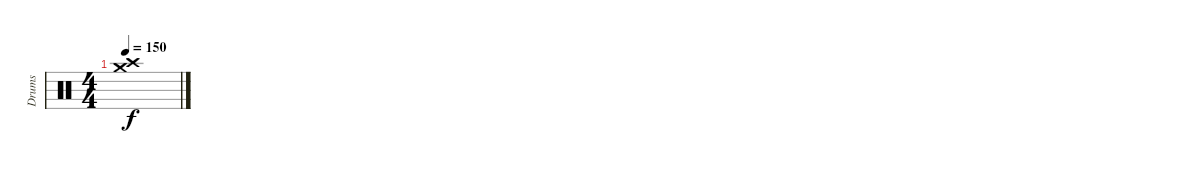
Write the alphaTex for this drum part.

\track ("Drums" "Drums") {instrument percussion}
\staff {score}
\articulation defaults
\ts (4 4)
\tempo 150
\clef neutral
\ks c
("Crash high (hit)" "Crash medium (hit)").1{dy f}
